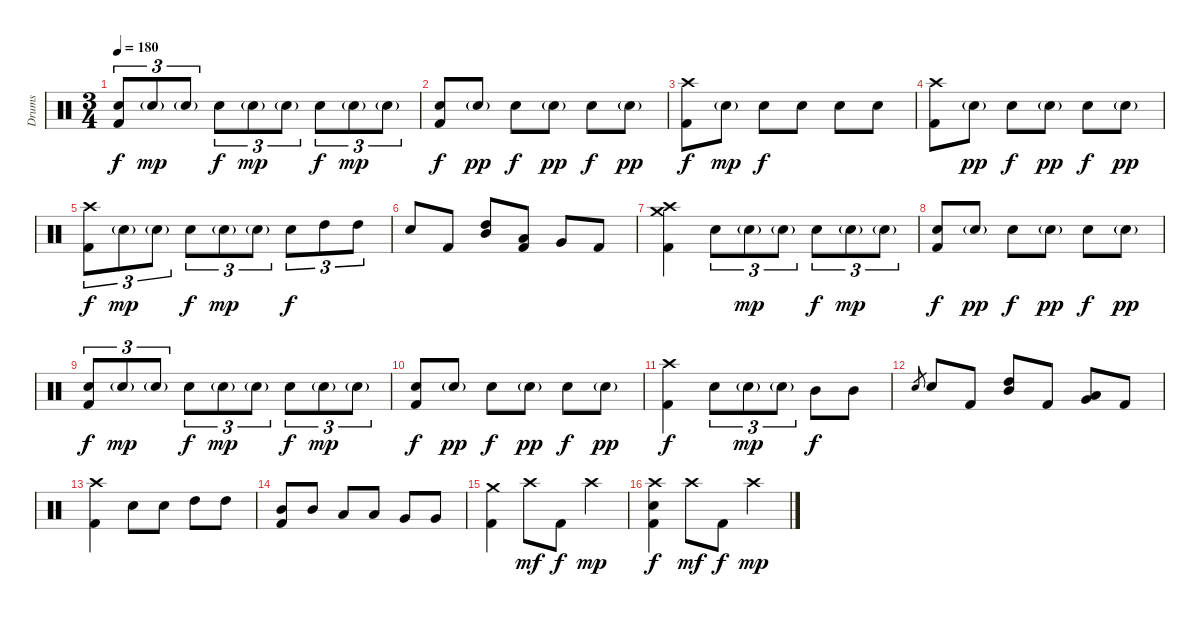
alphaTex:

\track ("Drums" "Drums") {instrument percussion}
\staff {score}
\articulation defaults
\ts (3 4)
\tempo 180
\clef neutral
\ks c
("Electric Snare (hit)" "Kick (hit) 2").8{tu (3 2) dy f} "Electric Snare (hit)"{g}.8{tu (3 2) dy mp} "Electric Snare (hit)"{g}.8{tu (3 2)} "Electric Snare (hit)".8{tu (3 2) dy f} "Electric Snare (hit)"{g}.8{tu (3 2) dy mp} "Electric Snare (hit)"{g}.8{tu (3 2)} "Electric Snare (hit)".8{tu (3 2) dy f} "Electric Snare (hit)"{g}.8{tu (3 2) dy mp} "Electric Snare (hit)"{g}.8{tu (3 2)} |
("Electric Snare (hit)" "Kick (hit) 2").8{dy f} "Electric Snare (hit)"{g}.8{dy pp} "Electric Snare (hit)".8{dy f} "Electric Snare (hit)"{g}.8{dy pp} "Electric Snare (hit)".8{dy f} "Electric Snare (hit)"{g}.8{dy pp} |
("Crash high (hit)" "Kick (hit) 2").8{dy f} "Electric Snare (hit)"{g}.8{dy mp} "Electric Snare (hit)".8{dy f} "Electric Snare (hit)".8 "Electric Snare (hit)".8 "Electric Snare (hit)".8 |
("Crash high (hit)" "Kick (hit) 2").8 "Electric Snare (hit)"{g}.8{dy pp} "Electric Snare (hit)".8{dy f} "Electric Snare (hit)"{g}.8{dy pp} "Electric Snare (hit)".8{dy f} "Electric Snare (hit)"{g}.8{dy pp} |
("Crash high (hit)" "Kick (hit) 2").8{tu (3 2) dy f} "Electric Snare (hit)"{g}.8{tu (3 2) dy mp} "Electric Snare (hit)"{g}.8{tu (3 2)} "Electric Snare (hit)".8{tu (3 2) dy f} "Electric Snare (hit)"{g}.8{tu (3 2) dy mp} "Electric Snare (hit)"{g}.8{tu (3 2)} "Electric Snare (hit)".8{tu (3 2) dy f} "High Tom (hit)".8{tu (3 2)} "High Tom (hit)".8{tu (3 2)} |
"Electric Snare (hit)".8 "Kick (hit) 2".8 ("Mid Tom (hit)" "High Tom (hit)").8 ("Low Tom (hit)" "Kick (hit) 2").8 "Very Low Tom (hit)".8 "Kick (hit) 2".8 |
("Crash high (hit)" "Crash medium (hit)" "Kick (hit) 2").4 "Electric Snare (hit)".8{tu (3 2)} "Electric Snare (hit)"{g}.8{tu (3 2) dy mp} "Electric Snare (hit)"{g}.8{tu (3 2)} "Electric Snare (hit)".8{tu (3 2) dy f} "Electric Snare (hit)"{g}.8{tu (3 2) dy mp} "Electric Snare (hit)"{g}.8{tu (3 2)} |
("Electric Snare (hit)" "Kick (hit) 2").8{dy f} "Electric Snare (hit)"{g}.8{dy pp} "Electric Snare (hit)".8{dy f} "Electric Snare (hit)"{g}.8{dy pp} "Electric Snare (hit)".8{dy f} "Electric Snare (hit)"{g}.8{dy pp} |
("Electric Snare (hit)" "Kick (hit) 2").8{tu (3 2) dy f} "Electric Snare (hit)"{g}.8{tu (3 2) dy mp} "Electric Snare (hit)"{g}.8{tu (3 2)} "Electric Snare (hit)".8{tu (3 2) dy f} "Electric Snare (hit)"{g}.8{tu (3 2) dy mp} "Electric Snare (hit)"{g}.8{tu (3 2)} "Electric Snare (hit)".8{tu (3 2) dy f} "Electric Snare (hit)"{g}.8{tu (3 2) dy mp} "Electric Snare (hit)"{g}.8{tu (3 2)} |
("Electric Snare (hit)" "Kick (hit) 2").8{dy f} "Electric Snare (hit)"{g}.8{dy pp} "Electric Snare (hit)".8{dy f} "Electric Snare (hit)"{g}.8{dy pp} "Electric Snare (hit)".8{dy f} "Electric Snare (hit)"{g}.8{dy pp} |
("Crash high (hit)" "Kick (hit) 2").4{dy f} "Electric Snare (hit)".8{tu (3 2)} "Electric Snare (hit)"{g}.8{tu (3 2) dy mp} "Electric Snare (hit)"{g}.8{tu (3 2)} "Mid Tom (hit)".8{dy f} "Mid Tom (hit)".8 |
"Electric Snare (hit)".8{gr} "Electric Snare (hit)".8 "Kick (hit) 2".8 ("Mid Tom (hit)" "High Tom (hit)").8 "Kick (hit) 2".8 ("Very Low Tom (hit)" "Low Tom (hit)").8 "Kick (hit) 2".8 |
("Crash high (hit)" "Kick (hit) 2").4 "Electric Snare (hit)".8 "Electric Snare (hit)".8 "High Tom (hit)".8 "High Tom (hit)".8 |
("Mid Tom (hit)" "Kick (hit) 2").8 "Mid Tom (hit)".8 "Low Tom (hit)".8 "Low Tom (hit)".8 "Very Low Tom (hit)".8 "Very Low Tom (hit)".8 |
("Crash medium (hit)" "Kick (hit) 2").4 "Crash high (hit)".8{dy mf} "Kick (hit) 2".8{dy f} "Crash high (hit)".4{dy mp} |
("Crash high (hit)" "Electric Snare (hit)" "Kick (hit) 2").4{dy f} "Crash high (hit)".8{dy mf} "Kick (hit) 2".8{dy f} "Crash high (hit)".4{dy mp}
